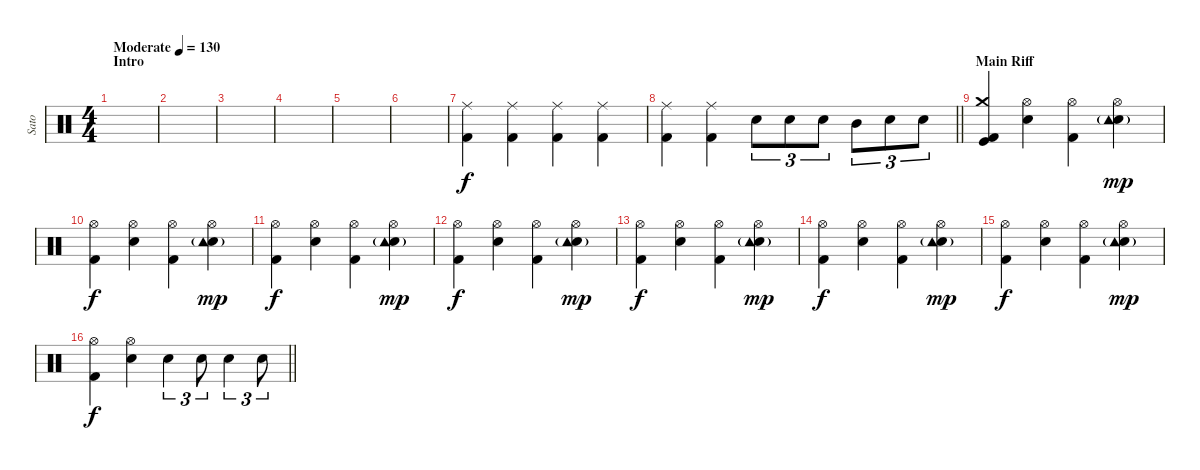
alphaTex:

\track ("Sato" "Sato") {instrument percussion}
\staff {score}
\articulation defaults
\ts (4 4)
\section ("" "Intro")
\tempo (130 "Moderate")
\clef neutral
\ks c
|
|
|
|
|
|
("Ride (middle)" "Kick (hit) 2").4 ("Ride (middle)" "Kick (hit) 2").4 ("Ride (middle)" "Kick (hit) 2").4 ("Ride (middle)" "Kick (hit) 2").4 |
\barLineRight lightlight
("Ride (middle)" "Kick (hit) 2").4 ("Ride (middle)" "Kick (hit) 2").4 "Electric Snare (hit)".8{tu (3 2)} "Electric Snare (hit)".8{tu (3 2)} "Electric Snare (hit)".8{tu (3 2)} "Mid Tom (hit)".8{tu (3 2)} "Electric Snare (hit)".8{tu (3 2)} "Electric Snare (hit)".8{tu (3 2)} |
\section ("" "Main Riff")
("Crash medium (hit)" "Kick (hit) 2" "Kick (hit)").4 ("Hi-Hat (open)" "Electric Snare (hit)").4 ("Hi-Hat (open)" "Kick (hit) 2").4 ("Hi-Hat (open)" "Electric Snare (hit)" "Tambourine (hit)"{g}).4{dy mp} |
("Hi-Hat (open)" "Kick (hit) 2").4{dy f} ("Hi-Hat (open)" "Electric Snare (hit)").4 ("Hi-Hat (open)" "Kick (hit) 2").4 ("Hi-Hat (open)" "Electric Snare (hit)" "Tambourine (hit)"{g}).4{dy mp} |
("Hi-Hat (open)" "Kick (hit) 2").4{dy f} ("Hi-Hat (open)" "Electric Snare (hit)").4 ("Hi-Hat (open)" "Kick (hit) 2").4 ("Hi-Hat (open)" "Electric Snare (hit)" "Tambourine (hit)"{g}).4{dy mp} |
("Hi-Hat (open)" "Kick (hit) 2").4{dy f} ("Hi-Hat (open)" "Electric Snare (hit)").4 ("Hi-Hat (open)" "Kick (hit) 2").4 ("Hi-Hat (open)" "Electric Snare (hit)" "Tambourine (hit)"{g}).4{dy mp} |
("Hi-Hat (open)" "Kick (hit) 2").4{dy f} ("Hi-Hat (open)" "Electric Snare (hit)").4 ("Hi-Hat (open)" "Kick (hit) 2").4 ("Hi-Hat (open)" "Electric Snare (hit)" "Tambourine (hit)"{g}).4{dy mp} |
("Hi-Hat (open)" "Kick (hit) 2").4{dy f} ("Hi-Hat (open)" "Electric Snare (hit)").4 ("Hi-Hat (open)" "Kick (hit) 2").4 ("Hi-Hat (open)" "Electric Snare (hit)" "Tambourine (hit)"{g}).4{dy mp} |
("Hi-Hat (open)" "Kick (hit) 2").4{dy f} ("Hi-Hat (open)" "Electric Snare (hit)").4 ("Hi-Hat (open)" "Kick (hit) 2").4 ("Hi-Hat (open)" "Electric Snare (hit)" "Tambourine (hit)"{g}).4{dy mp} |
\barLineRight lightlight
("Hi-Hat (open)" "Kick (hit) 2").4{dy f} ("Hi-Hat (open)" "Electric Snare (hit)").4 "Electric Snare (hit)".4{tu (3 2)} "Electric Snare (hit)".8{tu (3 2)} "Electric Snare (hit)".4{tu (3 2)} "Electric Snare (hit)".8{tu (3 2)}
